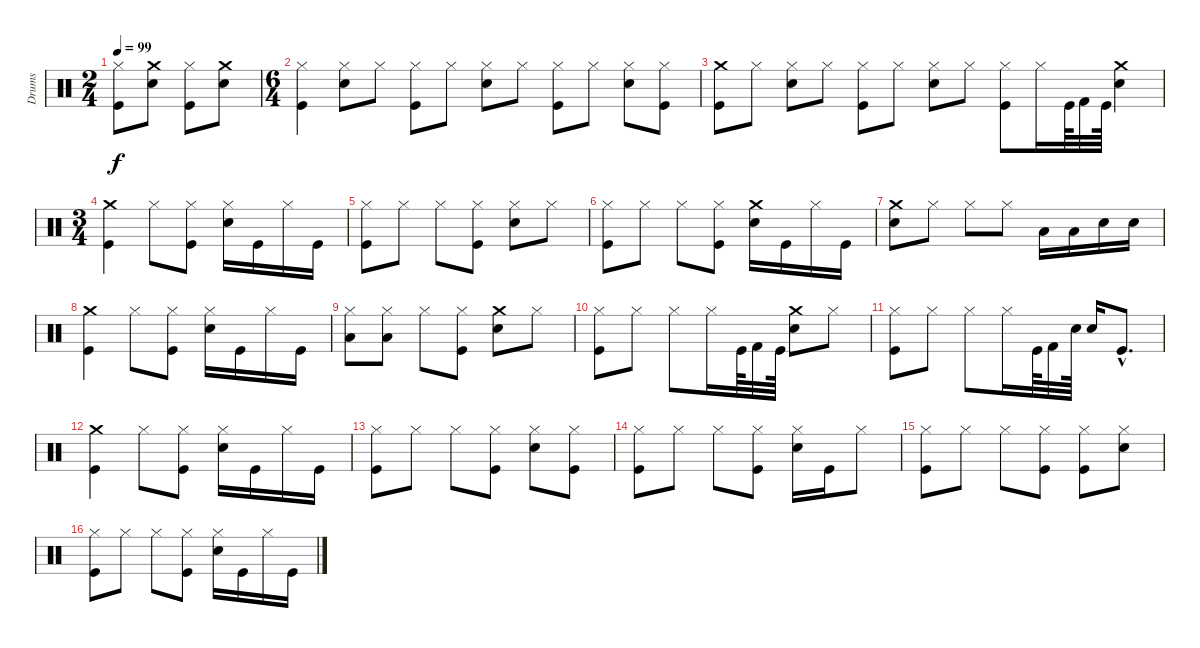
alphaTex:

\track ("Drums" "Drums") {instrument percussion}
\staff {score}
\articulation defaults
\ts (2 4)
\tempo 99
\clef neutral
\ks c
("Hi-Hat (closed)" "Kick (hit)").8{dy f} ("Crash medium (hit)" "Snare (hit) 2").8 ("Hi-Hat (closed)" "Kick (hit)").8 ("Crash medium (hit)" "Snare (hit) 2").8 |
\ts (6 4)
("Hi-Hat (closed)" "Kick (hit)").4 ("Hi-Hat (closed)" "Snare (hit) 2").8 "Hi-Hat (closed)".8 ("Hi-Hat (closed)" "Kick (hit)").8 "Hi-Hat (closed)".8 ("Snare (hit) 2" "Hi-Hat (closed)").8 "Hi-Hat (closed)".8 ("Hi-Hat (closed)" "Kick (hit)").8 "Hi-Hat (closed)".8 ("Snare (hit) 2" "Hi-Hat (closed)").8 ("Hi-Hat (closed)" "Kick (hit)").8 |
("Kick (hit)" "Crash medium (hit)").8 "Hi-Hat (closed)".8 ("Hi-Hat (closed)" "Snare (hit) 2").8 "Hi-Hat (closed)".8 ("Hi-Hat (closed)" "Kick (hit)").8 "Hi-Hat (closed)".8 ("Snare (hit) 2" "Hi-Hat (closed)").8 "Hi-Hat (closed)".8 ("Hi-Hat (closed)" "Kick (hit)").8 "Hi-Hat (closed)".16 "Kick (hit)".64 "Kick (hit) 2".32 "Kick (hit)".64 ("Crash medium (hit)" "Snare (hit) 2").4 |
\ts (3 4)
("Crash medium (hit)" "Kick (hit)").4 "Hi-Hat (closed)".8 ("Kick (hit)" "Hi-Hat (closed)").8 ("Snare (hit) 2" "Hi-Hat (closed)").16 "Kick (hit)".16 "Hi-Hat (closed)".16 "Kick (hit)".16 |
("Hi-Hat (closed)" "Kick (hit)").8 "Hi-Hat (closed)".8 "Hi-Hat (closed)".8 ("Hi-Hat (closed)" "Kick (hit)").8 ("Snare (hit) 2" "Hi-Hat (closed)").8 "Hi-Hat (closed)".8 |
("Hi-Hat (closed)" "Kick (hit)").8 "Hi-Hat (closed)".8 "Hi-Hat (closed)".8 ("Kick (hit)" "Hi-Hat (closed)").8 ("Crash medium (hit)" "Snare (hit) 2").16 "Kick (hit)".16 "Hi-Hat (closed)".16 "Kick (hit)".16 |
("Crash medium (hit)" "Snare (hit) 2").8 "Hi-Hat (closed)".8 "Hi-Hat (closed)".8 "Hi-Hat (closed)".8 "Low Tom (hit)".16 "Low Tom (hit)".16 "Snare (hit) 2".16 "Snare (hit) 2".16 |
("Kick (hit)" "Crash medium (hit)").4 "Hi-Hat (closed)".8 ("Kick (hit)" "Hi-Hat (closed)").8 ("Snare (hit) 2" "Hi-Hat (closed)").16 "Kick (hit)".16 "Hi-Hat (closed)".16 "Kick (hit)".16 |
("Hi-Hat (closed)" "Low Tom (hit)").8 ("Hi-Hat (closed)" "Low Tom (hit)").8 "Hi-Hat (closed)".8 ("Kick (hit)" "Hi-Hat (closed)").8 ("Crash medium (hit)" "Snare (hit) 2").8 "Hi-Hat (closed)".8 |
("Hi-Hat (closed)" "Kick (hit)").8 "Hi-Hat (closed)".8 "Hi-Hat (closed)".8 "Hi-Hat (closed)".16 "Kick (hit)".64 "Kick (hit) 2".32 "Kick (hit)".64 ("Crash medium (hit)" "Snare (hit) 2").8 "Hi-Hat (closed)".8 |
("Hi-Hat (closed)" "Kick (hit)").8 "Hi-Hat (closed)".8 "Hi-Hat (closed)".8 "Hi-Hat (closed)".16 "Kick (hit)".64 "Kick (hit) 2".32 "Snare (hit) 2".64 "Snare (hit) 2".16 "Kick (hit)"{hac}.8{d} |
("Kick (hit)" "Crash medium (hit)").4 "Hi-Hat (closed)".8 ("Kick (hit)" "Hi-Hat (closed)").8 ("Hi-Hat (closed)" "Snare (hit) 2").16 "Kick (hit)".16 "Hi-Hat (closed)".16 "Kick (hit)".16 |
("Kick (hit)" "Hi-Hat (closed)").8 "Hi-Hat (closed)".8 "Hi-Hat (closed)".8 ("Hi-Hat (closed)" "Kick (hit)").8 ("Snare (hit) 2" "Hi-Hat (closed)").8 ("Hi-Hat (closed)" "Kick (hit)").8 |
("Hi-Hat (closed)" "Kick (hit)").8 "Hi-Hat (closed)".8 "Hi-Hat (closed)".8 ("Hi-Hat (closed)" "Kick (hit)").8 ("Snare (hit) 2" "Hi-Hat (closed)").16 "Kick (hit)".16 "Hi-Hat (closed)".8 |
("Hi-Hat (closed)" "Kick (hit)").8 "Hi-Hat (closed)".8 "Hi-Hat (closed)".8 ("Kick (hit)" "Hi-Hat (closed)").8 ("Hi-Hat (closed)" "Kick (hit)").8 ("Snare (hit) 2" "Hi-Hat (closed)").8 |
("Kick (hit)" "Hi-Hat (closed)").8 "Hi-Hat (closed)".8 "Hi-Hat (closed)".8 ("Kick (hit)" "Hi-Hat (closed)").8 ("Snare (hit) 2" "Hi-Hat (closed)").16 "Kick (hit)".16 "Hi-Hat (closed)".16 "Kick (hit)".16
